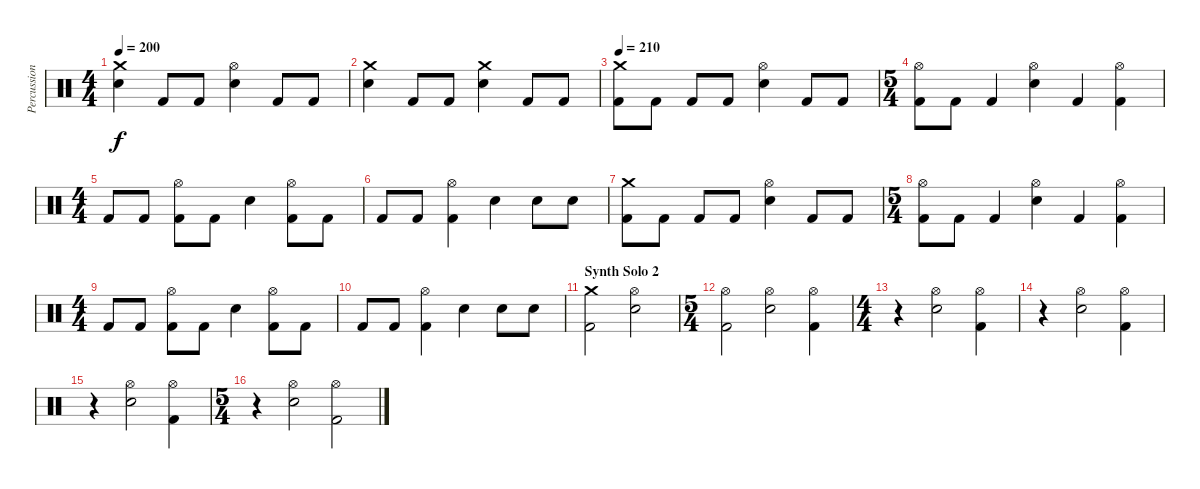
\track ("Percussion" "Percussion") {instrument percussion}
\staff {score}
\articulation defaults
\ts (4 4)
\tempo 200
\clef neutral
\ks c
("Crash medium (hit)" "Electric Snare (hit)").4{dy f} "Kick (hit) 2".8 "Kick (hit) 2".8 ("Hi-Hat (open)" "Electric Snare (hit)").4 "Kick (hit) 2".8 "Kick (hit) 2".8 |
("Crash medium (hit)" "Electric Snare (hit)").4 "Kick (hit) 2".8 "Kick (hit) 2".8 ("Crash medium (hit)" "Electric Snare (hit)").4 "Kick (hit) 2".8 "Kick (hit) 2".8 |
\tempo 210
("Crash medium (hit)" "Kick (hit) 2").8 "Kick (hit) 2".8 "Kick (hit) 2".8 "Kick (hit) 2".8 ("Hi-Hat (open)" "Electric Snare (hit)").4 "Kick (hit) 2".8 "Kick (hit) 2".8 |
\ts (5 4)
("Hi-Hat (open)" "Kick (hit) 2").8 "Kick (hit) 2".8 "Kick (hit) 2".4 ("Hi-Hat (open)" "Electric Snare (hit)").4 "Kick (hit) 2".4 ("Hi-Hat (open)" "Kick (hit) 2").4 |
\ts (4 4)
"Kick (hit) 2".8 "Kick (hit) 2".8 ("Hi-Hat (open)" "Kick (hit) 2").8 "Kick (hit) 2".8 "Electric Snare (hit)".4 ("Hi-Hat (open)" "Kick (hit) 2").8 "Kick (hit) 2".8 |
"Kick (hit) 2".8 "Kick (hit) 2".8 ("Hi-Hat (open)" "Kick (hit) 2").4 "Electric Snare (hit)".4 "Electric Snare (hit)".8 "Electric Snare (hit)".8 |
("Crash medium (hit)" "Kick (hit) 2").8 "Kick (hit) 2".8 "Kick (hit) 2".8 "Kick (hit) 2".8 ("Hi-Hat (open)" "Electric Snare (hit)").4 "Kick (hit) 2".8 "Kick (hit) 2".8 |
\ts (5 4)
("Hi-Hat (open)" "Kick (hit) 2").8 "Kick (hit) 2".8 "Kick (hit) 2".4 ("Hi-Hat (open)" "Electric Snare (hit)").4 "Kick (hit) 2".4 ("Hi-Hat (open)" "Kick (hit) 2").4 |
\ts (4 4)
"Kick (hit) 2".8 "Kick (hit) 2".8 ("Hi-Hat (open)" "Kick (hit) 2").8 "Kick (hit) 2".8 "Electric Snare (hit)".4 ("Hi-Hat (open)" "Kick (hit) 2").8 "Kick (hit) 2".8 |
"Kick (hit) 2".8 "Kick (hit) 2".8 ("Hi-Hat (open)" "Kick (hit) 2").4 "Electric Snare (hit)".4 "Electric Snare (hit)".8 "Electric Snare (hit)".8 |
\section ("" "Synth Solo 2")
("Crash medium (hit)" "Kick (hit) 2").2 ("Hi-Hat (open)" "Electric Snare (hit)").2 |
\ts (5 4)
("Hi-Hat (open)" "Kick (hit) 2").2 ("Hi-Hat (open)" "Electric Snare (hit)").2 ("Hi-Hat (open)" "Kick (hit) 2").4 |
\ts (4 4)
r.4 ("Hi-Hat (open)" "Electric Snare (hit)").2 ("Hi-Hat (open)" "Kick (hit) 2").4 |
r.4 ("Hi-Hat (open)" "Electric Snare (hit)").2 ("Hi-Hat (open)" "Kick (hit) 2").4 |
r.4 ("Hi-Hat (open)" "Electric Snare (hit)").2 ("Hi-Hat (open)" "Kick (hit) 2").4 |
\ts (5 4)
r.4 ("Hi-Hat (open)" "Electric Snare (hit)").2 ("Hi-Hat (open)" "Kick (hit) 2").2
